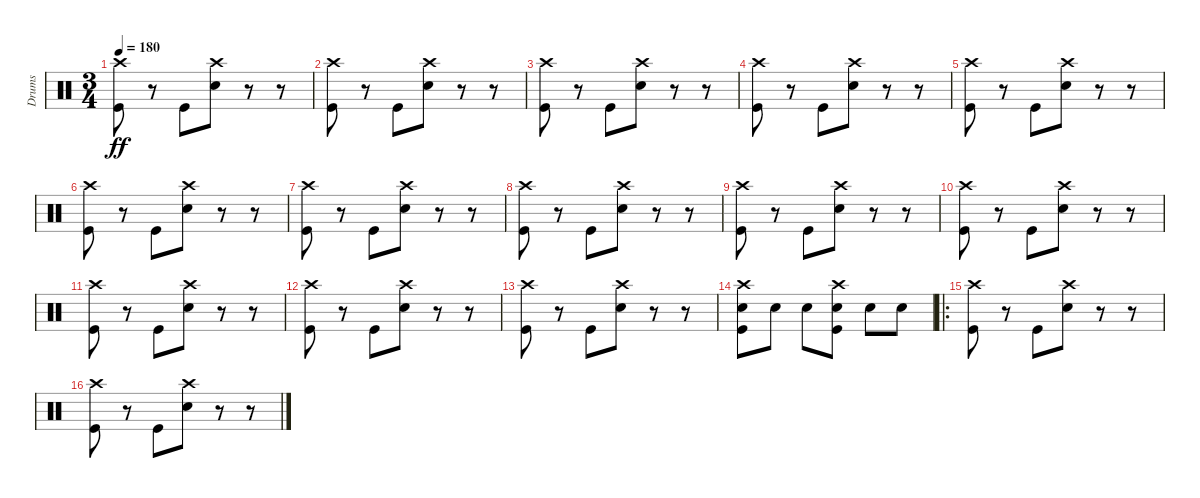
\track ("Drums" "Drums") {instrument percussion}
\staff {score}
\articulation defaults
\ts (3 4)
\tempo 180
\clef neutral
\ks c
("Crash high (hit)" "Kick (hit)").8{dy ff} r.8 "Kick (hit)".8 ("Crash high (hit)" "Snare (hit) 2").8 r.8 r.8 |
("Crash high (hit)" "Kick (hit)").8 r.8 "Kick (hit)".8 ("Crash high (hit)" "Snare (hit) 2").8 r.8 r.8 |
("Crash high (hit)" "Kick (hit)").8 r.8 "Kick (hit)".8 ("Crash high (hit)" "Snare (hit) 2").8 r.8 r.8 |
("Crash high (hit)" "Kick (hit)").8 r.8 "Kick (hit)".8 ("Crash high (hit)" "Snare (hit) 2").8 r.8 r.8 |
("Crash high (hit)" "Kick (hit)").8 r.8 "Kick (hit)".8 ("Crash high (hit)" "Snare (hit) 2").8 r.8 r.8 |
("Crash high (hit)" "Kick (hit)").8 r.8 "Kick (hit)".8 ("Crash high (hit)" "Snare (hit) 2").8 r.8 r.8 |
("Crash high (hit)" "Kick (hit)").8 r.8 "Kick (hit)".8 ("Crash high (hit)" "Snare (hit) 2").8 r.8 r.8 |
("Crash high (hit)" "Kick (hit)").8 r.8 "Kick (hit)".8 ("Crash high (hit)" "Snare (hit) 2").8 r.8 r.8 |
("Crash high (hit)" "Kick (hit)").8 r.8 "Kick (hit)".8 ("Crash high (hit)" "Snare (hit) 2").8 r.8 r.8 |
("Crash high (hit)" "Kick (hit)").8 r.8 "Kick (hit)".8 ("Crash high (hit)" "Snare (hit) 2").8 r.8 r.8 |
("Crash high (hit)" "Kick (hit)").8 r.8 "Kick (hit)".8 ("Crash high (hit)" "Snare (hit) 2").8 r.8 r.8 |
("Crash high (hit)" "Kick (hit)").8 r.8 "Kick (hit)".8 ("Crash high (hit)" "Snare (hit) 2").8 r.8 r.8 |
("Crash high (hit)" "Kick (hit)").8 r.8 "Kick (hit)".8 ("Crash high (hit)" "Snare (hit) 2").8 r.8 r.8 |
("Crash high (hit)" "Snare (hit) 2" "Kick (hit)").8 "Snare (hit) 2".8 "Snare (hit) 2".8 ("Crash high (hit)" "Snare (hit) 2" "Kick (hit)").8 "Snare (hit) 2".8 "Snare (hit) 2".8 |
\ro
("Crash high (hit)" "Kick (hit)").8 r.8 "Kick (hit)".8 ("Crash high (hit)" "Snare (hit) 2").8 r.8 r.8 |
("Crash high (hit)" "Kick (hit)").8 r.8 "Kick (hit)".8 ("Crash high (hit)" "Snare (hit) 2").8 r.8 r.8
